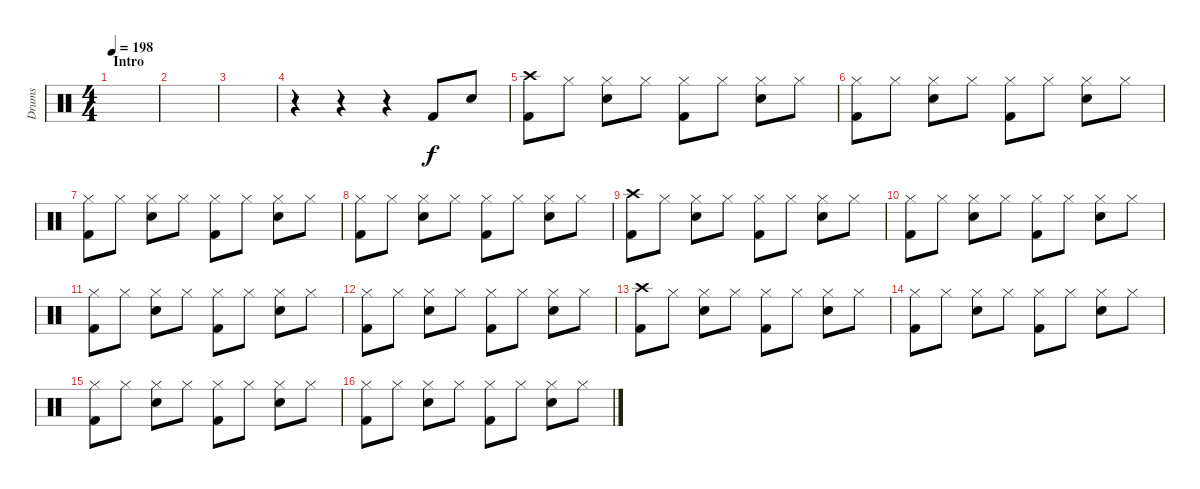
\track ("Drums" "Drums") {instrument percussion}
\staff {score}
\articulation defaults
\ts (4 4)
\section ("" "Intro")
\tempo 198
\clef neutral
\ks c
|
|
|
r.4 r.4 r.4 "Kick (hit) 2".8 "Snare (hit) 2".8 |
("Crash high (hit)" "Kick (hit) 2").8 "Hi-Hat (closed)".8 ("Hi-Hat (closed)" "Snare (hit) 2").8 "Hi-Hat (closed)".8 ("Hi-Hat (closed)" "Kick (hit) 2").8 "Hi-Hat (closed)".8 ("Hi-Hat (closed)" "Snare (hit) 2").8 "Hi-Hat (closed)".8 |
("Hi-Hat (closed)" "Kick (hit) 2").8 "Hi-Hat (closed)".8 ("Hi-Hat (closed)" "Snare (hit) 2").8 "Hi-Hat (closed)".8 ("Hi-Hat (closed)" "Kick (hit) 2").8 "Hi-Hat (closed)".8 ("Hi-Hat (closed)" "Snare (hit) 2").8 "Hi-Hat (closed)".8 |
("Hi-Hat (closed)" "Kick (hit) 2").8 "Hi-Hat (closed)".8 ("Hi-Hat (closed)" "Snare (hit) 2").8 "Hi-Hat (closed)".8 ("Hi-Hat (closed)" "Kick (hit) 2").8 "Hi-Hat (closed)".8 ("Hi-Hat (closed)" "Snare (hit) 2").8 "Hi-Hat (closed)".8 |
("Hi-Hat (closed)" "Kick (hit) 2").8 "Hi-Hat (closed)".8 ("Hi-Hat (closed)" "Snare (hit) 2").8 "Hi-Hat (closed)".8 ("Hi-Hat (closed)" "Kick (hit) 2").8 "Hi-Hat (closed)".8 ("Hi-Hat (closed)" "Snare (hit) 2").8 "Hi-Hat (closed)".8 |
("Crash high (hit)" "Kick (hit) 2").8 "Hi-Hat (closed)".8 ("Hi-Hat (closed)" "Snare (hit) 2").8 "Hi-Hat (closed)".8 ("Hi-Hat (closed)" "Kick (hit) 2").8 "Hi-Hat (closed)".8 ("Hi-Hat (closed)" "Snare (hit) 2").8 "Hi-Hat (closed)".8 |
("Hi-Hat (closed)" "Kick (hit) 2").8 "Hi-Hat (closed)".8 ("Hi-Hat (closed)" "Snare (hit) 2").8 "Hi-Hat (closed)".8 ("Hi-Hat (closed)" "Kick (hit) 2").8 "Hi-Hat (closed)".8 ("Hi-Hat (closed)" "Snare (hit) 2").8 "Hi-Hat (closed)".8 |
("Hi-Hat (closed)" "Kick (hit) 2").8 "Hi-Hat (closed)".8 ("Hi-Hat (closed)" "Snare (hit) 2").8 "Hi-Hat (closed)".8 ("Hi-Hat (closed)" "Kick (hit) 2").8 "Hi-Hat (closed)".8 ("Hi-Hat (closed)" "Snare (hit) 2").8 "Hi-Hat (closed)".8 |
("Hi-Hat (closed)" "Kick (hit) 2").8 "Hi-Hat (closed)".8 ("Hi-Hat (closed)" "Snare (hit) 2").8 "Hi-Hat (closed)".8 ("Hi-Hat (closed)" "Kick (hit) 2").8 "Hi-Hat (closed)".8 ("Hi-Hat (closed)" "Snare (hit) 2").8 "Hi-Hat (closed)".8 |
("Crash high (hit)" "Kick (hit) 2").8 "Hi-Hat (closed)".8 ("Hi-Hat (closed)" "Snare (hit) 2").8 "Hi-Hat (closed)".8 ("Hi-Hat (closed)" "Kick (hit) 2").8 "Hi-Hat (closed)".8 ("Hi-Hat (closed)" "Snare (hit) 2").8 "Hi-Hat (closed)".8 |
("Hi-Hat (closed)" "Kick (hit) 2").8 "Hi-Hat (closed)".8 ("Hi-Hat (closed)" "Snare (hit) 2").8 "Hi-Hat (closed)".8 ("Hi-Hat (closed)" "Kick (hit) 2").8 "Hi-Hat (closed)".8 ("Hi-Hat (closed)" "Snare (hit) 2").8 "Hi-Hat (closed)".8 |
("Hi-Hat (closed)" "Kick (hit) 2").8 "Hi-Hat (closed)".8 ("Hi-Hat (closed)" "Snare (hit) 2").8 "Hi-Hat (closed)".8 ("Hi-Hat (closed)" "Kick (hit) 2").8 "Hi-Hat (closed)".8 ("Hi-Hat (closed)" "Snare (hit) 2").8 "Hi-Hat (closed)".8 |
("Hi-Hat (closed)" "Kick (hit) 2").8 "Hi-Hat (closed)".8 ("Hi-Hat (closed)" "Snare (hit) 2").8 "Hi-Hat (closed)".8 ("Hi-Hat (closed)" "Kick (hit) 2").8 "Hi-Hat (closed)".8 ("Hi-Hat (closed)" "Snare (hit) 2").8 "Hi-Hat (closed)".8
